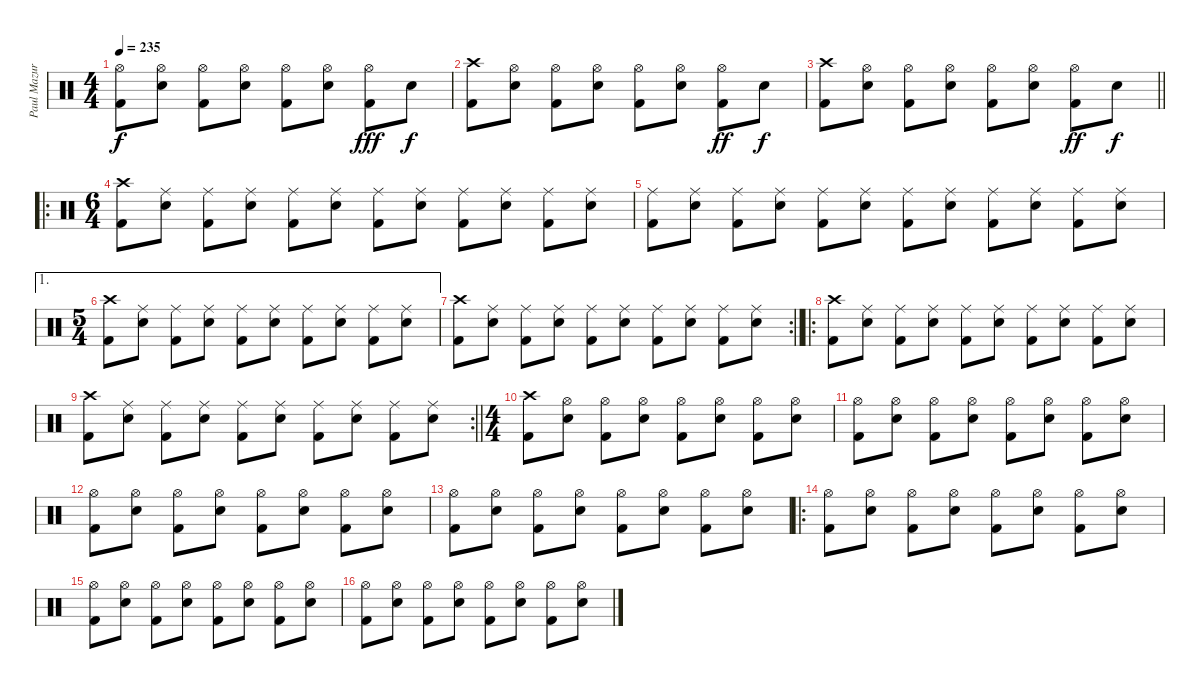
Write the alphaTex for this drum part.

\track ("Paul Mazurkiewicz" "Paul Mazur") {instrument percussion}
\staff {score}
\articulation defaults
\ts (4 4)
\tempo 235
\clef neutral
\ks c
("Hi-Hat (open)" "Kick (hit) 2").8{dy f} ("Hi-Hat (open)" "Electric Snare (hit)").8 ("Hi-Hat (open)" "Kick (hit) 2").8 ("Hi-Hat (open)" "Electric Snare (hit)").8 ("Hi-Hat (open)" "Kick (hit) 2").8 ("Hi-Hat (open)" "Electric Snare (hit)").8 ("Hi-Hat (open)" "Kick (hit) 2").8{dy fff} "Electric Snare (hit)".8{dy f} |
("Crash high (hit)" "Kick (hit) 2").8 ("Hi-Hat (open)" "Electric Snare (hit)").8 ("Hi-Hat (open)" "Kick (hit) 2").8 ("Hi-Hat (open)" "Electric Snare (hit)").8 ("Hi-Hat (open)" "Kick (hit) 2").8 ("Hi-Hat (open)" "Electric Snare (hit)").8 ("Hi-Hat (open)" "Kick (hit) 2").8{dy ff} "Electric Snare (hit)".8{dy f} |
\barLineRight lightlight
("Crash high (hit)" "Kick (hit) 2").8 ("Hi-Hat (open)" "Electric Snare (hit)").8 ("Hi-Hat (open)" "Kick (hit) 2").8 ("Hi-Hat (open)" "Electric Snare (hit)").8 ("Hi-Hat (open)" "Kick (hit) 2").8 ("Hi-Hat (open)" "Electric Snare (hit)").8 ("Hi-Hat (open)" "Kick (hit) 2").8{dy ff} "Electric Snare (hit)".8{dy f} |
\ro
\ts (6 4)
\section ("" "")
("Crash high (hit)" "Kick (hit) 2").8 ("Ride (middle)" "Electric Snare (hit)").8 ("Ride (middle)" "Kick (hit) 2").8 ("Ride (middle)" "Electric Snare (hit)").8 ("Ride (middle)" "Kick (hit) 2").8 ("Ride (middle)" "Electric Snare (hit)").8 ("Ride (middle)" "Kick (hit) 2").8 ("Ride (middle)" "Electric Snare (hit)").8 ("Ride (middle)" "Kick (hit) 2").8 ("Ride (middle)" "Electric Snare (hit)").8 ("Ride (middle)" "Kick (hit) 2").8 ("Ride (middle)" "Electric Snare (hit)").8 |
("Ride (middle)" "Kick (hit) 2").8 ("Ride (middle)" "Electric Snare (hit)").8 ("Ride (middle)" "Kick (hit) 2").8 ("Ride (middle)" "Electric Snare (hit)").8 ("Ride (middle)" "Kick (hit) 2").8 ("Ride (middle)" "Electric Snare (hit)").8 ("Ride (middle)" "Kick (hit) 2").8 ("Ride (middle)" "Electric Snare (hit)").8 ("Ride (middle)" "Kick (hit) 2").8 ("Ride (middle)" "Electric Snare (hit)").8 ("Ride (middle)" "Kick (hit) 2").8 ("Ride (middle)" "Electric Snare (hit)").8 |
\ae 1
\ts (5 4)
("Crash high (hit)" "Kick (hit) 2").8 ("Ride (middle)" "Electric Snare (hit)").8 ("Ride (middle)" "Kick (hit) 2").8 ("Ride (middle)" "Electric Snare (hit)").8 ("Ride (middle)" "Kick (hit) 2").8 ("Ride (middle)" "Electric Snare (hit)").8 ("Ride (middle)" "Kick (hit) 2").8 ("Ride (middle)" "Electric Snare (hit)").8 ("Ride (middle)" "Kick (hit) 2").8 ("Ride (middle)" "Electric Snare (hit)").8 |
\rc 2
\barLineRight lightlight
("Crash high (hit)" "Kick (hit) 2").8 ("Ride (middle)" "Electric Snare (hit)").8 ("Ride (middle)" "Kick (hit) 2").8 ("Ride (middle)" "Electric Snare (hit)").8 ("Ride (middle)" "Kick (hit) 2").8 ("Ride (middle)" "Electric Snare (hit)").8 ("Ride (middle)" "Kick (hit) 2").8 ("Ride (middle)" "Electric Snare (hit)").8 ("Ride (middle)" "Kick (hit) 2").8 ("Ride (middle)" "Electric Snare (hit)").8 |
\ro
("Crash high (hit)" "Kick (hit) 2").8 ("Ride (middle)" "Electric Snare (hit)").8 ("Ride (middle)" "Kick (hit) 2").8 ("Ride (middle)" "Electric Snare (hit)").8 ("Ride (middle)" "Kick (hit) 2").8 ("Ride (middle)" "Electric Snare (hit)").8 ("Ride (middle)" "Kick (hit) 2").8 ("Ride (middle)" "Electric Snare (hit)").8 ("Ride (middle)" "Kick (hit) 2").8 ("Ride (middle)" "Electric Snare (hit)").8 |
\rc 2
\barLineRight lightlight
("Crash high (hit)" "Kick (hit) 2").8 ("Ride (middle)" "Electric Snare (hit)").8 ("Ride (middle)" "Kick (hit) 2").8 ("Ride (middle)" "Electric Snare (hit)").8 ("Ride (middle)" "Kick (hit) 2").8 ("Ride (middle)" "Electric Snare (hit)").8 ("Ride (middle)" "Kick (hit) 2").8 ("Ride (middle)" "Electric Snare (hit)").8 ("Ride (middle)" "Kick (hit) 2").8 ("Ride (middle)" "Electric Snare (hit)").8 |
\ts (4 4)
\section ("" "")
("Crash high (hit)" "Kick (hit) 2").8 ("Hi-Hat (open)" "Electric Snare (hit)").8 ("Hi-Hat (open)" "Kick (hit) 2").8 ("Hi-Hat (open)" "Electric Snare (hit)").8 ("Hi-Hat (open)" "Kick (hit) 2").8 ("Hi-Hat (open)" "Electric Snare (hit)").8 ("Hi-Hat (open)" "Kick (hit) 2").8 ("Hi-Hat (open)" "Electric Snare (hit)").8 |
("Hi-Hat (open)" "Kick (hit) 2").8 ("Hi-Hat (open)" "Electric Snare (hit)").8 ("Hi-Hat (open)" "Kick (hit) 2").8 ("Hi-Hat (open)" "Electric Snare (hit)").8 ("Hi-Hat (open)" "Kick (hit) 2").8 ("Hi-Hat (open)" "Electric Snare (hit)").8 ("Hi-Hat (open)" "Kick (hit) 2").8 ("Hi-Hat (open)" "Electric Snare (hit)").8 |
("Hi-Hat (open)" "Kick (hit) 2").8 ("Hi-Hat (open)" "Electric Snare (hit)").8 ("Hi-Hat (open)" "Kick (hit) 2").8 ("Hi-Hat (open)" "Electric Snare (hit)").8 ("Hi-Hat (open)" "Kick (hit) 2").8 ("Hi-Hat (open)" "Electric Snare (hit)").8 ("Hi-Hat (open)" "Kick (hit) 2").8 ("Hi-Hat (open)" "Electric Snare (hit)").8 |
("Hi-Hat (open)" "Kick (hit) 2").8 ("Hi-Hat (open)" "Electric Snare (hit)").8 ("Hi-Hat (open)" "Kick (hit) 2").8 ("Hi-Hat (open)" "Electric Snare (hit)").8 ("Hi-Hat (open)" "Kick (hit) 2").8 ("Hi-Hat (open)" "Electric Snare (hit)").8 ("Hi-Hat (open)" "Kick (hit) 2").8 ("Hi-Hat (open)" "Electric Snare (hit)").8 |
\ro
("Hi-Hat (open)" "Kick (hit) 2").8 ("Hi-Hat (open)" "Electric Snare (hit)").8 ("Hi-Hat (open)" "Kick (hit) 2").8 ("Hi-Hat (open)" "Electric Snare (hit)").8 ("Hi-Hat (open)" "Kick (hit) 2").8 ("Hi-Hat (open)" "Electric Snare (hit)").8 ("Hi-Hat (open)" "Kick (hit) 2").8 ("Hi-Hat (open)" "Electric Snare (hit)").8 |
("Hi-Hat (open)" "Kick (hit) 2").8 ("Hi-Hat (open)" "Electric Snare (hit)").8 ("Hi-Hat (open)" "Kick (hit) 2").8 ("Hi-Hat (open)" "Electric Snare (hit)").8 ("Hi-Hat (open)" "Kick (hit) 2").8 ("Hi-Hat (open)" "Electric Snare (hit)").8 ("Hi-Hat (open)" "Kick (hit) 2").8 ("Hi-Hat (open)" "Electric Snare (hit)").8 |
("Hi-Hat (open)" "Kick (hit) 2").8 ("Hi-Hat (open)" "Electric Snare (hit)").8 ("Hi-Hat (open)" "Kick (hit) 2").8 ("Hi-Hat (open)" "Electric Snare (hit)").8 ("Hi-Hat (open)" "Kick (hit) 2").8 ("Hi-Hat (open)" "Electric Snare (hit)").8 ("Hi-Hat (open)" "Kick (hit) 2").8 ("Hi-Hat (open)" "Electric Snare (hit)").8
